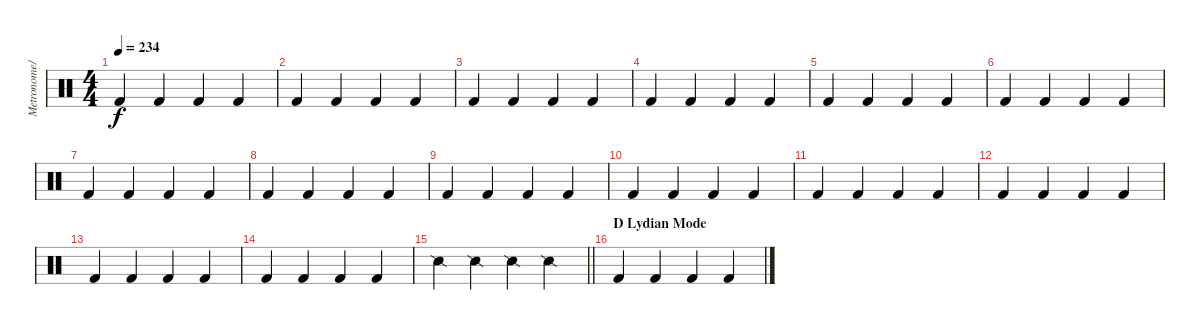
\track ("Metronome/Beat" "Metronome/") {instrument percussion}
\staff {score}
\articulation defaults
\ts (4 4)
\tempo 234
\clef neutral
\ks c "Kick (hit) 2".4{dy f} "Kick (hit) 2".4 "Kick (hit) 2".4 "Kick (hit) 2".4
|
"Kick (hit) 2".4 "Kick (hit) 2".4 "Kick (hit) 2".4 "Kick (hit) 2".4 |
"Kick (hit) 2".4 "Kick (hit) 2".4 "Kick (hit) 2".4 "Kick (hit) 2".4 |
"Kick (hit) 2".4 "Kick (hit) 2".4 "Kick (hit) 2".4 "Kick (hit) 2".4 |
"Kick (hit) 2".4 "Kick (hit) 2".4 "Kick (hit) 2".4 "Kick (hit) 2".4 |
"Kick (hit) 2".4 "Kick (hit) 2".4 "Kick (hit) 2".4 "Kick (hit) 2".4 |
"Kick (hit) 2".4 "Kick (hit) 2".4 "Kick (hit) 2".4 "Kick (hit) 2".4 |
"Kick (hit) 2".4 "Kick (hit) 2".4 "Kick (hit) 2".4 "Kick (hit) 2".4 |
"Kick (hit) 2".4 "Kick (hit) 2".4 "Kick (hit) 2".4 "Kick (hit) 2".4 |
"Kick (hit) 2".4 "Kick (hit) 2".4 "Kick (hit) 2".4 "Kick (hit) 2".4 |
"Kick (hit) 2".4 "Kick (hit) 2".4 "Kick (hit) 2".4 "Kick (hit) 2".4 |
"Kick (hit) 2".4 "Kick (hit) 2".4 "Kick (hit) 2".4 "Kick (hit) 2".4 |
"Kick (hit) 2".4 "Kick (hit) 2".4 "Kick (hit) 2".4 "Kick (hit) 2".4 |
"Kick (hit) 2".4 "Kick (hit) 2".4 "Kick (hit) 2".4 "Kick (hit) 2".4 |
\barLineRight lightlight "Snare (side stick) 2".4 "Snare (side stick) 2".4 "Snare (side stick) 2".4 "Snare (side stick) 2".4
|
\section ("" "D Lydian Mode")
"Kick (hit) 2".4 "Kick (hit) 2".4 "Kick (hit) 2".4 "Kick (hit) 2".4
